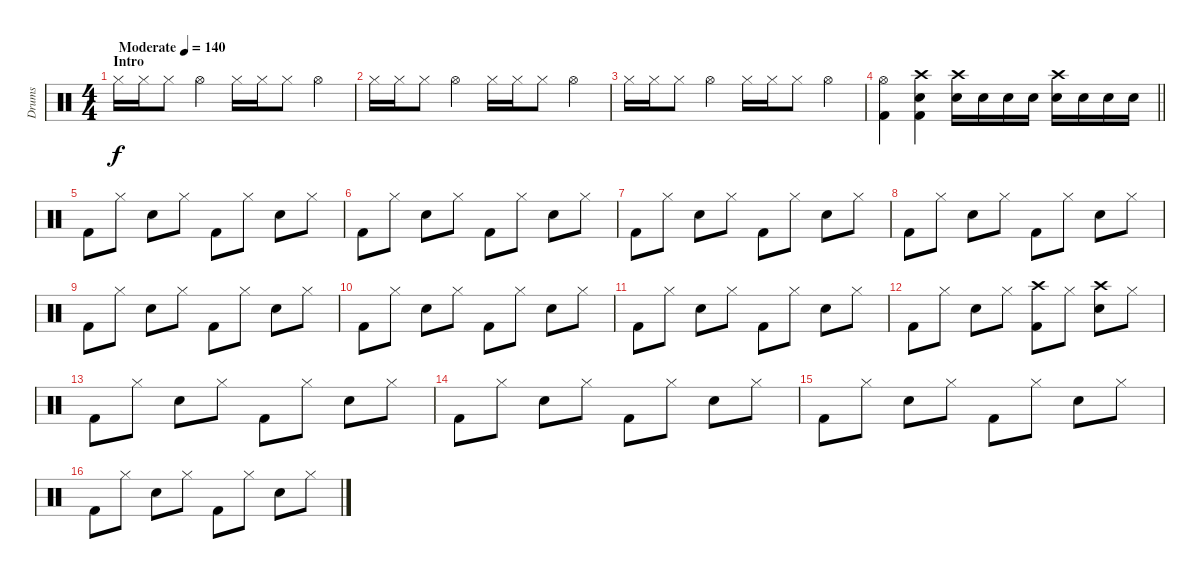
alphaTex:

\track ("Drums" "Drums") {instrument percussion}
\staff {score}
\articulation defaults
\ts (4 4)
\section ("" "Intro")
\tempo (140 "Moderate")
\clef neutral
\ks c "Hi-Hat (closed)".16{dy f} "Hi-Hat (closed)".16 "Hi-Hat (closed)".8 "Hi-Hat (open)".4 "Hi-Hat (closed)".16 "Hi-Hat (closed)".16 "Hi-Hat (closed)".8 "Hi-Hat (open)".4
|
"Hi-Hat (closed)".16 "Hi-Hat (closed)".16 "Hi-Hat (closed)".8 "Hi-Hat (open)".4 "Hi-Hat (closed)".16 "Hi-Hat (closed)".16 "Hi-Hat (closed)".8 "Hi-Hat (open)".4 |
"Hi-Hat (closed)".16 "Hi-Hat (closed)".16 "Hi-Hat (closed)".8 "Hi-Hat (open)".4 "Hi-Hat (closed)".16 "Hi-Hat (closed)".16 "Hi-Hat (closed)".8 "Hi-Hat (open)".4 |
\barLineRight lightlight
("Kick (hit) 2" "Hi-Hat (open)").4 ("Snare (hit) 2" "Kick (hit) 2" "Crash high (hit)").4 ("Snare (hit) 2" "Crash high (hit)").16 "Snare (hit) 2".16 "Snare (hit) 2".16 "Snare (hit) 2".16 ("Snare (hit) 2" "Crash high (hit)").16 "Snare (hit) 2".16 "Snare (hit) 2".16 "Snare (hit) 2".16 |
"Kick (hit) 2".8 "Hi-Hat (closed)".8 "Snare (hit) 2".8 "Hi-Hat (closed)".8 "Kick (hit) 2".8 "Hi-Hat (closed)".8 "Snare (hit) 2".8 "Hi-Hat (closed)".8 |
"Kick (hit) 2".8 "Hi-Hat (closed)".8 "Snare (hit) 2".8 "Hi-Hat (closed)".8 "Kick (hit) 2".8 "Hi-Hat (closed)".8 "Snare (hit) 2".8 "Hi-Hat (closed)".8 |
"Kick (hit) 2".8 "Hi-Hat (closed)".8 "Snare (hit) 2".8 "Hi-Hat (closed)".8 "Kick (hit) 2".8 "Hi-Hat (closed)".8 "Snare (hit) 2".8 "Hi-Hat (closed)".8 |
"Kick (hit) 2".8 "Hi-Hat (closed)".8 "Snare (hit) 2".8 "Hi-Hat (closed)".8 "Kick (hit) 2".8 "Hi-Hat (closed)".8 "Snare (hit) 2".8 "Hi-Hat (closed)".8 |
"Kick (hit) 2".8 "Hi-Hat (closed)".8 "Snare (hit) 2".8 "Hi-Hat (closed)".8 "Kick (hit) 2".8 "Hi-Hat (closed)".8 "Snare (hit) 2".8 "Hi-Hat (closed)".8 |
"Kick (hit) 2".8 "Hi-Hat (closed)".8 "Snare (hit) 2".8 "Hi-Hat (closed)".8 "Kick (hit) 2".8 "Hi-Hat (closed)".8 "Snare (hit) 2".8 "Hi-Hat (closed)".8 |
"Kick (hit) 2".8 "Hi-Hat (closed)".8 "Snare (hit) 2".8 "Hi-Hat (closed)".8 "Kick (hit) 2".8 "Hi-Hat (closed)".8 "Snare (hit) 2".8 "Hi-Hat (closed)".8 |
"Kick (hit) 2".8 "Hi-Hat (closed)".8 "Snare (hit) 2".8 "Hi-Hat (closed)".8 ("Kick (hit) 2" "Crash high (hit)").8 "Hi-Hat (closed)".8 ("Snare (hit) 2" "Crash high (hit)").8 "Hi-Hat (closed)".8 |
"Kick (hit) 2".8 "Hi-Hat (closed)".8 "Snare (hit) 2".8 "Hi-Hat (closed)".8 "Kick (hit) 2".8 "Hi-Hat (closed)".8 "Snare (hit) 2".8 "Hi-Hat (closed)".8 |
"Kick (hit) 2".8 "Hi-Hat (closed)".8 "Snare (hit) 2".8 "Hi-Hat (closed)".8 "Kick (hit) 2".8 "Hi-Hat (closed)".8 "Snare (hit) 2".8 "Hi-Hat (closed)".8 |
"Kick (hit) 2".8 "Hi-Hat (closed)".8 "Snare (hit) 2".8 "Hi-Hat (closed)".8 "Kick (hit) 2".8 "Hi-Hat (closed)".8 "Snare (hit) 2".8 "Hi-Hat (closed)".8 |
"Kick (hit) 2".8 "Hi-Hat (closed)".8 "Snare (hit) 2".8 "Hi-Hat (closed)".8 "Kick (hit) 2".8 "Hi-Hat (closed)".8 "Snare (hit) 2".8 "Hi-Hat (closed)".8
